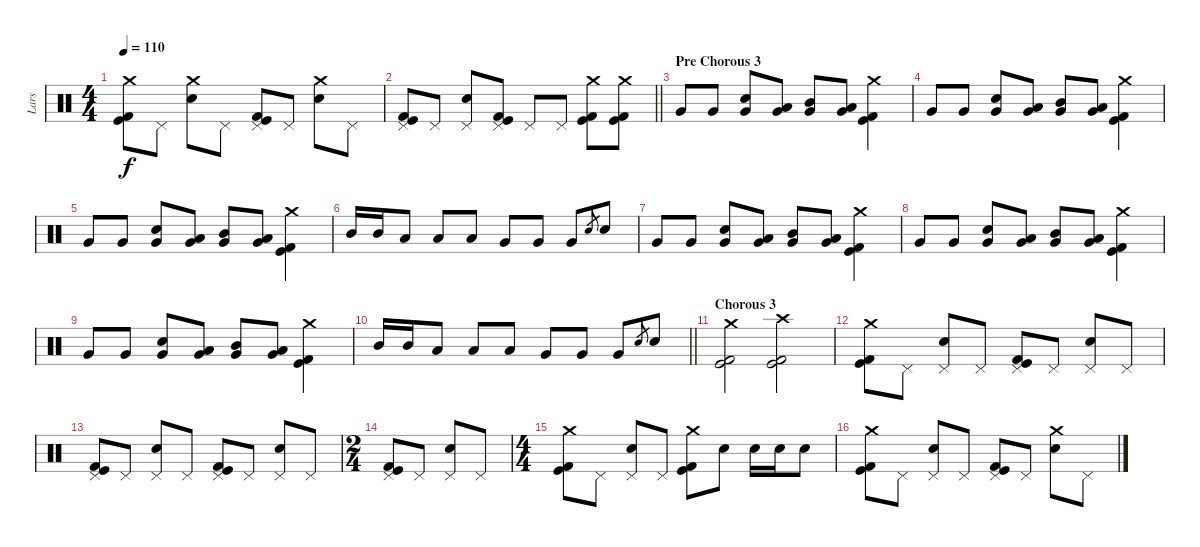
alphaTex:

\track ("Lars" "Lars") {instrument percussion}
\staff {score}
\articulation defaults
\ts (4 4)
\tempo 110
\clef neutral
\ks c
("Crash medium (hit)" "Kick (hit)" "Kick (hit) 2").8{dy f} "Pedal Hi-Hat (hit)".8 ("Crash medium (hit)" "Electric Snare (hit)").8 "Pedal Hi-Hat (hit)".8 ("Pedal Hi-Hat (hit)" "Kick (hit)" "Kick (hit) 2").8 "Pedal Hi-Hat (hit)".8 ("Crash medium (hit)" "Electric Snare (hit)").8 "Pedal Hi-Hat (hit)".8 |
\barLineRight lightlight
("Pedal Hi-Hat (hit)" "Kick (hit)" "Kick (hit) 2").8 "Pedal Hi-Hat (hit)".8 ("Pedal Hi-Hat (hit)" "Electric Snare (hit)").8 ("Pedal Hi-Hat (hit)" "Kick (hit)" "Kick (hit) 2").8 "Pedal Hi-Hat (hit)".8 "Pedal Hi-Hat (hit)".8 ("Crash medium (hit)" "Kick (hit)" "Kick (hit) 2").8 ("Crash medium (hit)" "Kick (hit)" "Kick (hit) 2").8 |
\section ("" "Pre Chorous 3")
"Very Low Tom (hit)".8 "Very Low Tom (hit)".8 ("Very Low Tom (hit)" "Electric Snare (hit)").8 ("Very Low Tom (hit)" "Low Tom (hit)").8 ("Very Low Tom (hit)" "Mid Tom (hit)").8 ("Very Low Tom (hit)" "Low Tom (hit)").8 ("Crash medium (hit)" "Kick (hit)" "Kick (hit) 2").4 |
"Very Low Tom (hit)".8 "Very Low Tom (hit)".8 ("Very Low Tom (hit)" "Electric Snare (hit)").8 ("Very Low Tom (hit)" "Low Tom (hit)").8 ("Very Low Tom (hit)" "Mid Tom (hit)").8 ("Very Low Tom (hit)" "Low Tom (hit)").8 ("Crash medium (hit)" "Kick (hit)" "Kick (hit) 2").4 |
"Very Low Tom (hit)".8 "Very Low Tom (hit)".8 ("Very Low Tom (hit)" "Electric Snare (hit)").8 ("Very Low Tom (hit)" "Low Tom (hit)").8 ("Very Low Tom (hit)" "Mid Tom (hit)").8 ("Very Low Tom (hit)" "Low Tom (hit)").8 ("Crash medium (hit)" "Kick (hit)" "Kick (hit) 2").4 |
"Mid Tom (hit)".16 "Mid Tom (hit)".16 "Low Tom (hit)".8 "Low Tom (hit)".8 "Low Tom (hit)".8 "Very Low Tom (hit)".8 "Very Low Tom (hit)".8 "Very Low Tom (hit)".8 "Electric Snare (hit)".8{gr} "Electric Snare (hit)".8 |
"Very Low Tom (hit)".8 "Very Low Tom (hit)".8 ("Very Low Tom (hit)" "Electric Snare (hit)").8 ("Very Low Tom (hit)" "Low Tom (hit)").8 ("Very Low Tom (hit)" "Mid Tom (hit)").8 ("Very Low Tom (hit)" "Low Tom (hit)").8 ("Crash medium (hit)" "Kick (hit)" "Kick (hit) 2").4 |
"Very Low Tom (hit)".8 "Very Low Tom (hit)".8 ("Very Low Tom (hit)" "Electric Snare (hit)").8 ("Very Low Tom (hit)" "Low Tom (hit)").8 ("Very Low Tom (hit)" "Mid Tom (hit)").8 ("Very Low Tom (hit)" "Low Tom (hit)").8 ("Crash medium (hit)" "Kick (hit)" "Kick (hit) 2").4 |
"Very Low Tom (hit)".8 "Very Low Tom (hit)".8 ("Very Low Tom (hit)" "Electric Snare (hit)").8 ("Very Low Tom (hit)" "Low Tom (hit)").8 ("Very Low Tom (hit)" "Mid Tom (hit)").8 ("Very Low Tom (hit)" "Low Tom (hit)").8 ("Crash medium (hit)" "Kick (hit)" "Kick (hit) 2").4 |
\barLineRight lightlight "Mid Tom (hit)".16 "Mid Tom (hit)".16 "Low Tom (hit)".8 "Low Tom (hit)".8 "Low Tom (hit)".8 "Very Low Tom (hit)".8 "Very Low Tom (hit)".8 "Very Low Tom (hit)".8 "Electric Snare (hit)".8{gr} "Electric Snare (hit)".8
|
\section ("" "Chorous 3")
("Crash medium (hit)" "Kick (hit)" "Kick (hit) 2").2 ("Crash high (hit)" "Kick (hit)" "Kick (hit) 2").2 |
("Crash medium (hit)" "Kick (hit)" "Kick (hit) 2").8 "Pedal Hi-Hat (hit)".8 ("Pedal Hi-Hat (hit)" "Electric Snare (hit)").8 "Pedal Hi-Hat (hit)".8 ("Pedal Hi-Hat (hit)" "Kick (hit)" "Kick (hit) 2").8 "Pedal Hi-Hat (hit)".8 ("Pedal Hi-Hat (hit)" "Electric Snare (hit)").8 "Pedal Hi-Hat (hit)".8 |
("Pedal Hi-Hat (hit)" "Kick (hit)" "Kick (hit) 2").8 "Pedal Hi-Hat (hit)".8 ("Pedal Hi-Hat (hit)" "Electric Snare (hit)").8 "Pedal Hi-Hat (hit)".8 ("Pedal Hi-Hat (hit)" "Kick (hit)" "Kick (hit) 2").8 "Pedal Hi-Hat (hit)".8 ("Pedal Hi-Hat (hit)" "Electric Snare (hit)").8 "Pedal Hi-Hat (hit)".8 |
\ts (2 4)
("Pedal Hi-Hat (hit)" "Kick (hit)" "Kick (hit) 2").8 "Pedal Hi-Hat (hit)".8 ("Pedal Hi-Hat (hit)" "Electric Snare (hit)").8 "Pedal Hi-Hat (hit)".8 |
\ts (4 4)
("Crash medium (hit)" "Kick (hit)" "Kick (hit) 2").8 "Pedal Hi-Hat (hit)".8 ("Pedal Hi-Hat (hit)" "Electric Snare (hit)").8 "Pedal Hi-Hat (hit)".8 ("Crash medium (hit)" "Kick (hit)" "Kick (hit) 2").8 "Electric Snare (hit)".8 "Electric Snare (hit)".16 "Electric Snare (hit)".16 "Electric Snare (hit)".8 |
("Crash medium (hit)" "Kick (hit)" "Kick (hit) 2").8 "Pedal Hi-Hat (hit)".8 ("Pedal Hi-Hat (hit)" "Electric Snare (hit)").8 "Pedal Hi-Hat (hit)".8 ("Pedal Hi-Hat (hit)" "Kick (hit)" "Kick (hit) 2").8 "Pedal Hi-Hat (hit)".8 ("Crash medium (hit)" "Electric Snare (hit)").8 "Pedal Hi-Hat (hit)".8
